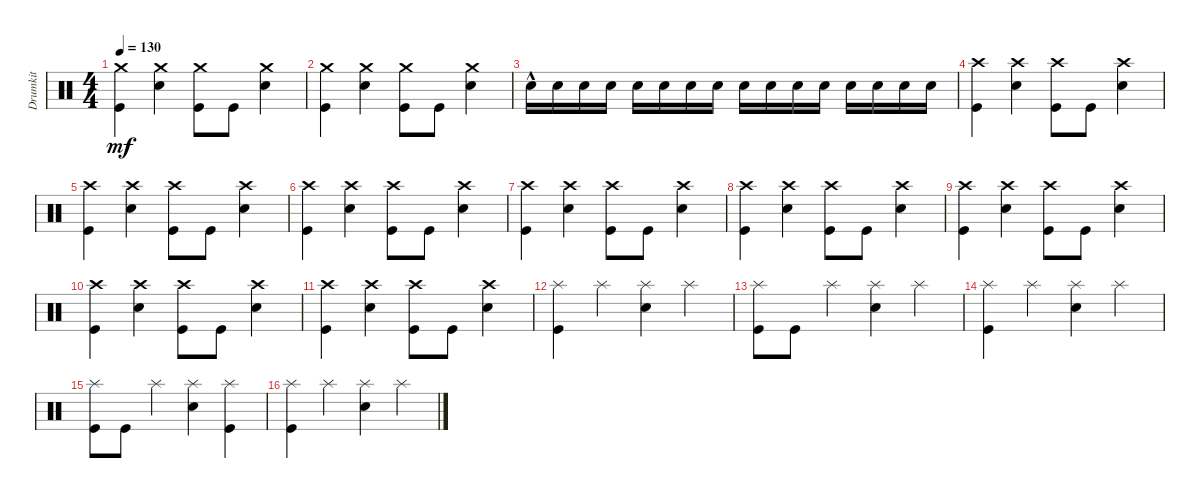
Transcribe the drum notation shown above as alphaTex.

\track ("Drumkit" "Drumkit") {instrument percussion}
\staff {score}
\articulation defaults
\ts (4 4)
\tempo 130
\clef neutral
\ks c
("Kick (hit)" "Crash medium (hit)").4{dy mf} ("Snare (hit) 2" "Crash medium (hit)").4 ("Kick (hit)" "Crash medium (hit)").8 "Kick (hit)".8 ("Snare (hit) 2" "Crash medium (hit)").4 |
("Kick (hit)" "Crash medium (hit)").4 ("Snare (hit) 2" "Crash medium (hit)").4 ("Kick (hit)" "Crash medium (hit)").8 "Kick (hit)".8 ("Snare (hit) 2" "Crash medium (hit)").4 |
"Snare (hit) 2"{hac}.16{volume 12} "Snare (hit) 2".16 "Snare (hit) 2".16 "Snare (hit) 2".16 "Snare (hit) 2".16 "Snare (hit) 2".16 "Snare (hit) 2".16 "Snare (hit) 2".16 "Snare (hit) 2".16 "Snare (hit) 2".16 "Snare (hit) 2".16 "Snare (hit) 2".16 "Snare (hit) 2".16 "Snare (hit) 2".16 "Snare (hit) 2".16 "Snare (hit) 2".16 |
("Kick (hit)" "Crash high (hit)").4{volume 16} ("Snare (hit) 2" "Crash high (hit)").4 ("Kick (hit)" "Crash high (hit)").8 "Kick (hit)".8 ("Snare (hit) 2" "Crash high (hit)").4 |
("Kick (hit)" "Crash high (hit)").4 ("Snare (hit) 2" "Crash high (hit)").4 ("Kick (hit)" "Crash high (hit)").8 "Kick (hit)".8 ("Snare (hit) 2" "Crash high (hit)").4 |
("Kick (hit)" "Crash high (hit)").4 ("Snare (hit) 2" "Crash high (hit)").4 ("Kick (hit)" "Crash high (hit)").8 "Kick (hit)".8 ("Snare (hit) 2" "Crash high (hit)").4 |
("Kick (hit)" "Crash high (hit)").4 ("Snare (hit) 2" "Crash high (hit)").4 ("Kick (hit)" "Crash high (hit)").8 "Kick (hit)".8 ("Snare (hit) 2" "Crash high (hit)").4 |
("Kick (hit)" "Crash high (hit)").4 ("Snare (hit) 2" "Crash high (hit)").4 ("Kick (hit)" "Crash high (hit)").8 "Kick (hit)".8 ("Snare (hit) 2" "Crash high (hit)").4 |
("Kick (hit)" "Crash high (hit)").4 ("Snare (hit) 2" "Crash high (hit)").4 ("Kick (hit)" "Crash high (hit)").8 "Kick (hit)".8 ("Snare (hit) 2" "Crash high (hit)").4 |
("Kick (hit)" "Crash high (hit)").4 ("Snare (hit) 2" "Crash high (hit)").4 ("Kick (hit)" "Crash high (hit)").8 "Kick (hit)".8 ("Snare (hit) 2" "Crash high (hit)").4 |
("Kick (hit)" "Crash high (hit)").4 ("Snare (hit) 2" "Crash high (hit)").4 ("Kick (hit)" "Crash high (hit)").8 "Kick (hit)".8 ("Snare (hit) 2" "Crash high (hit)").4 |
("Kick (hit)" "Splash (hit)").4 "Splash (hit)".4 ("Snare (hit) 2" "Splash (hit)").4 "Splash (hit)".4 |
("Kick (hit)" "Splash (hit)").8 "Kick (hit)".8 "Splash (hit)".4 ("Snare (hit) 2" "Splash (hit)").4 "Splash (hit)".4 |
("Kick (hit)" "Splash (hit)").4 "Splash (hit)".4 ("Snare (hit) 2" "Splash (hit)").4 "Splash (hit)".4 |
("Kick (hit)" "Splash (hit)").8 "Kick (hit)".8 "Splash (hit)".4 ("Snare (hit) 2" "Splash (hit)").4 ("Splash (hit)" "Kick (hit)").4 |
("Kick (hit)" "Splash (hit)").4 "Splash (hit)".4 ("Snare (hit) 2" "Splash (hit)").4 "Splash (hit)".4
